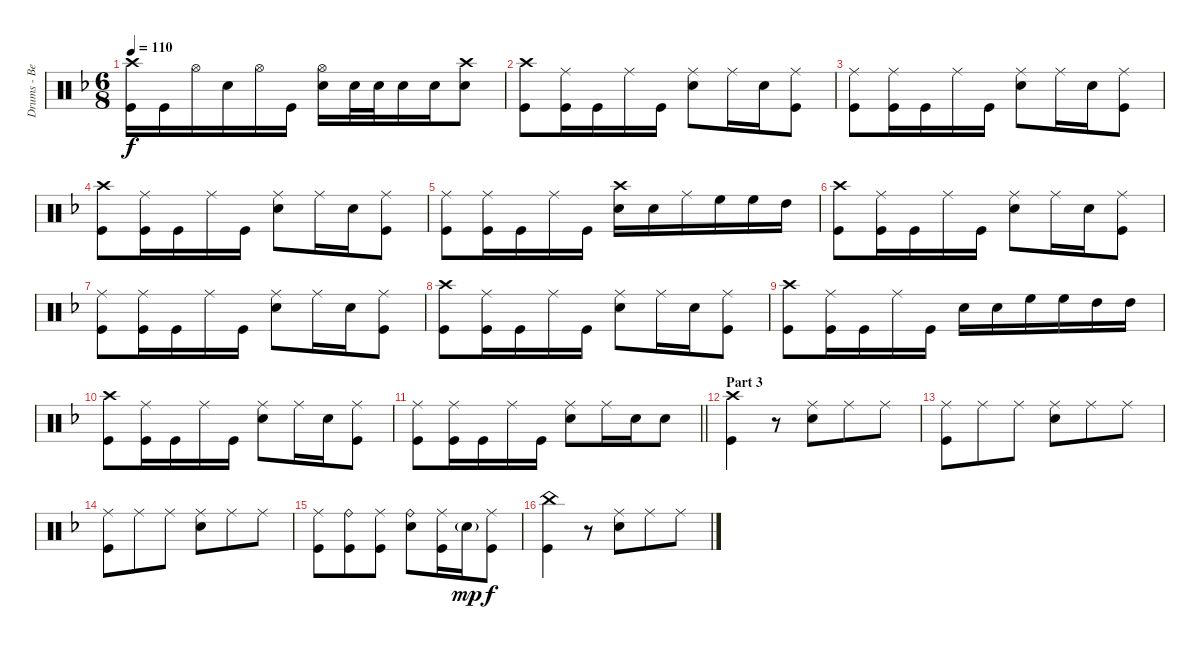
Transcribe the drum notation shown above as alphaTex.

\track ("Drums - Ben Johnston" "Drums - Be") {instrument percussion}
\staff {score}
\articulation defaults
\ts (6 8)
\tempo 110
\clef neutral
\ks dminor
("Crash high (hit)" "Kick (hit)").16{dy f} "Kick (hit)".16 "Hi-Hat (open)".16 "Snare (hit) 2".16 "Hi-Hat (open)".16 "Kick (hit)".16 ("Hi-Hat (open)" "Snare (hit) 2").16 "Snare (hit) 2".32 "Snare (hit) 2".32 "Snare (hit) 2".16 "Snare (hit) 2".16 ("Crash high (hit)" "Snare (hit) 2").8 |
("Crash high (hit)" "Kick (hit)").8 ("Ride (middle)" "Kick (hit)").16 "Kick (hit)".16 "Ride (middle)".16 "Kick (hit)".16 ("Ride (middle)" "Snare (hit) 2").8 "Ride (middle)".16 "Snare (hit) 2".16 ("Ride (middle)" "Kick (hit)").8 |
("Ride (middle)" "Kick (hit)").8 ("Ride (middle)" "Kick (hit)").16 "Kick (hit)".16 "Ride (middle)".16 "Kick (hit)".16 ("Ride (middle)" "Snare (hit) 2").8 "Ride (middle)".16 "Snare (hit) 2".16 ("Ride (middle)" "Kick (hit)").8 |
("Crash high (hit)" "Kick (hit)").8 ("Ride (middle)" "Kick (hit)").16 "Kick (hit)".16 "Ride (middle)".16 "Kick (hit)".16 ("Ride (middle)" "Snare (hit) 2").8 "Ride (middle)".16 "Snare (hit) 2".16 ("Ride (middle)" "Kick (hit)").8 |
("Ride (middle)" "Kick (hit)").8 ("Ride (middle)" "Kick (hit)").16 "Kick (hit)".16 "Ride (middle)".16 "Kick (hit)".16 ("Crash high (hit)" "Snare (hit) 2").16 "Snare (hit) 2".16 "Ride (middle)".16 "High Floor Tom (hit)".16 "High Floor Tom (hit)".16 "High Tom (hit)".16 |
("Crash high (hit)" "Kick (hit)").8 ("Ride (middle)" "Kick (hit)").16 "Kick (hit)".16 "Ride (middle)".16 "Kick (hit)".16 ("Ride (middle)" "Snare (hit) 2").8 "Ride (middle)".16 "Snare (hit) 2".16 ("Ride (middle)" "Kick (hit)").8 |
("Ride (middle)" "Kick (hit)").8 ("Ride (middle)" "Kick (hit)").16 "Kick (hit)".16 "Ride (middle)".16 "Kick (hit)".16 ("Ride (middle)" "Snare (hit) 2").8 "Ride (middle)".16 "Snare (hit) 2".16 ("Ride (middle)" "Kick (hit)").8 |
("Crash high (hit)" "Kick (hit)").8 ("Ride (middle)" "Kick (hit)").16 "Kick (hit)".16 "Ride (middle)".16 "Kick (hit)".16 ("Ride (middle)" "Snare (hit) 2").8 "Ride (middle)".16 "Snare (hit) 2".16 ("Ride (middle)" "Kick (hit)").8 |
("Crash high (hit)" "Kick (hit)").8 ("Ride (middle)" "Kick (hit)").16 "Kick (hit)".16 "Ride (middle)".16 "Kick (hit)".16 "Snare (hit) 2".16 "Snare (hit) 2".16 "High Floor Tom (hit)".16 "High Floor Tom (hit)".16 "High Tom (hit)".16 "High Tom (hit)".16 |
("Crash high (hit)" "Kick (hit)").8 ("Ride (middle)" "Kick (hit)").16 "Kick (hit)".16 "Ride (middle)".16 "Kick (hit)".16 ("Ride (middle)" "Snare (hit) 2").8 "Ride (middle)".16 "Snare (hit) 2".16 ("Ride (middle)" "Kick (hit)").8 |
\barLineRight lightlight
("Ride (middle)" "Kick (hit)").8 ("Ride (middle)" "Kick (hit)").16 "Kick (hit)".16 "Ride (middle)".16 "Kick (hit)".16 ("Ride (middle)" "Snare (hit) 2").8 "Ride (middle)".16 "Snare (hit) 2".16 "Snare (hit) 2".8 |
\section ("" "Part 3")
("Crash high (hit)" "Kick (hit)").4 r.8 ("Ride (middle)" "Snare (hit) 2").8{volume 12} "Ride (middle)".8 "Ride (middle)".8 |
("Ride (middle)" "Kick (hit)").8 "Ride (middle)".8 "Ride (middle)".8 ("Ride (middle)" "Snare (hit) 2").8 "Ride (middle)".8 "Ride (middle)".8 |
("Ride (middle)" "Kick (hit)").8 "Ride (middle)".8 "Ride (middle)".8 ("Ride (middle)" "Snare (hit) 2").8 "Ride (middle)".8 "Ride (middle)".8 |
("Ride (middle)" "Kick (hit)").8 ("Ride (bell)" "Kick (hit)").8 ("Ride (middle)" "Kick (hit)").8 ("Ride (bell)" "Snare (hit) 2").8 ("Ride (middle)" "Kick (hit)").16 "Snare (hit) 2"{g}.16{dy mp} ("Ride (middle)" "Kick (hit)").8{dy f} |
("China (hit)" "Kick (hit)").4 r.8 ("Ride (middle)" "Snare (hit) 2").8 "Ride (middle)".8 "Ride (middle)".8
